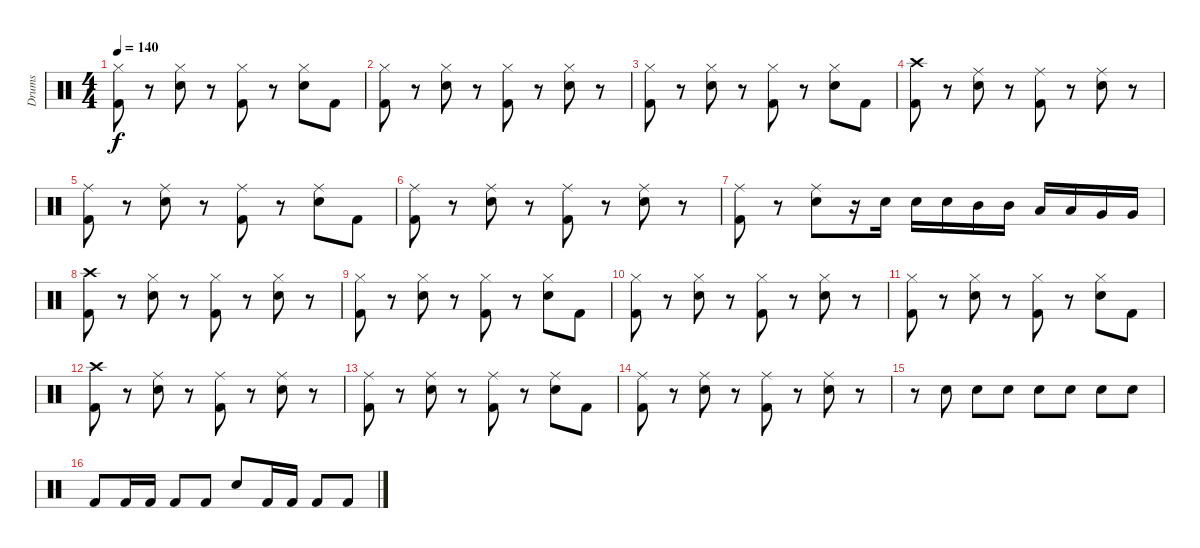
\track ("Drums" "Drums") {instrument percussion}
\staff {score}
\articulation defaults
\ts (4 4)
\tempo 140
\clef neutral
\ks c
("Hi-Hat (closed)" "Kick (hit) 2").8{dy f} r.8 ("Hi-Hat (closed)" "Electric Snare (hit)").8 r.8 ("Hi-Hat (closed)" "Kick (hit) 2").8 r.8 ("Hi-Hat (closed)" "Electric Snare (hit)").8 "Kick (hit) 2".8 |
("Hi-Hat (closed)" "Kick (hit) 2").8 r.8 ("Hi-Hat (closed)" "Electric Snare (hit)").8 r.8 ("Hi-Hat (closed)" "Kick (hit) 2").8 r.8 ("Hi-Hat (closed)" "Electric Snare (hit)").8 r.8 |
("Hi-Hat (closed)" "Kick (hit) 2").8 r.8 ("Hi-Hat (closed)" "Electric Snare (hit)").8 r.8 ("Hi-Hat (closed)" "Kick (hit) 2").8 r.8 ("Hi-Hat (closed)" "Electric Snare (hit)").8 "Kick (hit) 2".8 |
("Crash high (hit)" "Kick (hit) 2").8 r.8 ("Ride (middle)" "Electric Snare (hit)").8 r.8 ("Ride (middle)" "Kick (hit) 2").8 r.8 ("Ride (middle)" "Electric Snare (hit)").8 r.8 |
("Ride (middle)" "Kick (hit) 2").8 r.8 ("Ride (middle)" "Electric Snare (hit)").8 r.8 ("Ride (middle)" "Kick (hit) 2").8 r.8 ("Ride (middle)" "Electric Snare (hit)").8 "Kick (hit) 2".8 |
("Ride (middle)" "Kick (hit) 2").8 r.8 ("Ride (middle)" "Electric Snare (hit)").8 r.8 ("Ride (middle)" "Kick (hit) 2").8 r.8 ("Ride (middle)" "Electric Snare (hit)").8 r.8 |
("Ride (middle)" "Kick (hit) 2").8 r.8 ("Ride (middle)" "Electric Snare (hit)").8 r.16 "Electric Snare (hit)".16 "Electric Snare (hit)".16 "Electric Snare (hit)".16 "Mid Tom (hit)".16 "Mid Tom (hit)".16 "Low Tom (hit)".16 "Low Tom (hit)".16 "Very Low Tom (hit)".16 "Very Low Tom (hit)".16 |
("Crash high (hit)" "Kick (hit) 2").8 r.8 ("Hi-Hat (closed)" "Electric Snare (hit)").8 r.8 ("Hi-Hat (closed)" "Kick (hit) 2").8 r.8 ("Hi-Hat (closed)" "Electric Snare (hit)").8 r.8 |
("Hi-Hat (closed)" "Kick (hit) 2").8 r.8 ("Hi-Hat (closed)" "Electric Snare (hit)").8 r.8 ("Hi-Hat (closed)" "Kick (hit) 2").8 r.8 ("Hi-Hat (closed)" "Electric Snare (hit)").8 "Kick (hit) 2".8 |
("Hi-Hat (closed)" "Kick (hit) 2").8 r.8 ("Hi-Hat (closed)" "Electric Snare (hit)").8 r.8 ("Hi-Hat (closed)" "Kick (hit) 2").8 r.8 ("Hi-Hat (closed)" "Electric Snare (hit)").8 r.8 |
("Hi-Hat (closed)" "Kick (hit) 2").8 r.8 ("Hi-Hat (closed)" "Electric Snare (hit)").8 r.8 ("Hi-Hat (closed)" "Kick (hit) 2").8 r.8 ("Hi-Hat (closed)" "Electric Snare (hit)").8 "Kick (hit) 2".8 |
("Crash high (hit)" "Kick (hit) 2").8 r.8 ("Ride (middle)" "Electric Snare (hit)").8 r.8 ("Ride (middle)" "Kick (hit) 2").8 r.8 ("Ride (middle)" "Electric Snare (hit)").8 r.8 |
("Ride (middle)" "Kick (hit) 2").8 r.8 ("Ride (middle)" "Electric Snare (hit)").8 r.8 ("Ride (middle)" "Kick (hit) 2").8 r.8 ("Ride (middle)" "Electric Snare (hit)").8 "Kick (hit) 2".8 |
("Ride (middle)" "Kick (hit) 2").8 r.8 ("Ride (middle)" "Electric Snare (hit)").8 r.8 ("Ride (middle)" "Kick (hit) 2").8 r.8 ("Ride (middle)" "Electric Snare (hit)").8 r.8 |
r.8 "Electric Snare (hit)".8 "Electric Snare (hit)".8 "Electric Snare (hit)".8 "Electric Snare (hit)".8 "Electric Snare (hit)".8 "Electric Snare (hit)".8 "Electric Snare (hit)".8 |
"Kick (hit) 2".8 "Kick (hit) 2".16 "Kick (hit) 2".16 "Kick (hit) 2".8 "Kick (hit) 2".8 "Electric Snare (hit)".8 "Kick (hit) 2".16 "Kick (hit) 2".16 "Kick (hit) 2".8 "Kick (hit) 2".8
